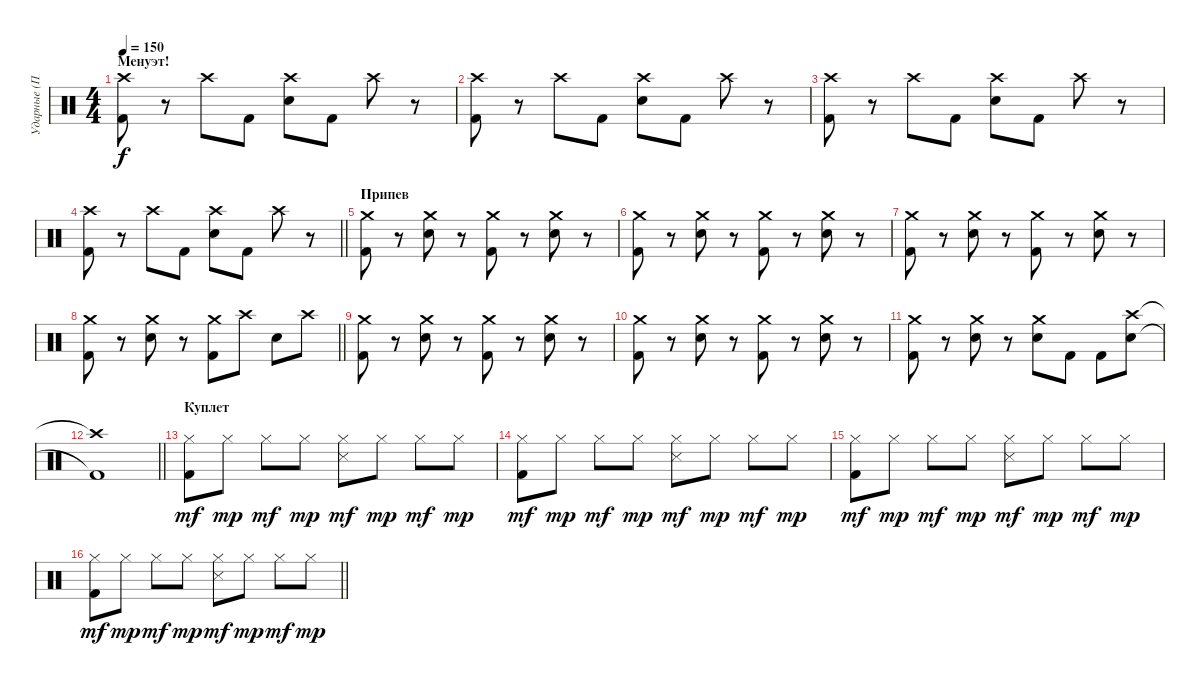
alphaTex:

\track ("Ударные (Поручик)" "Ударные (П") {instrument percussion}
\staff {score}
\articulation defaults
\ts (4 4)
\section ("" "Менуэт!")
\tempo 150
\clef neutral
\ks c
("Crash high (hit)" "Kick (hit) 2").8{dy f} r.8 "Crash high (hit)".8 "Kick (hit) 2".8 ("Crash high (hit)" "Snare (hit) 2").8 "Kick (hit) 2".8 "Crash high (hit)".8 r.8 |
("Crash high (hit)" "Kick (hit) 2").8 r.8 "Crash high (hit)".8 "Kick (hit) 2".8 ("Crash high (hit)" "Snare (hit) 2").8 "Kick (hit) 2".8 "Crash high (hit)".8 r.8 |
("Crash high (hit)" "Kick (hit) 2").8 r.8 "Crash high (hit)".8 "Kick (hit) 2".8 ("Crash high (hit)" "Snare (hit) 2").8 "Kick (hit) 2".8 "Crash high (hit)".8 r.8 |
\barLineRight lightlight
("Crash high (hit)" "Kick (hit) 2").8 r.8 "Crash high (hit)".8 "Kick (hit) 2".8 ("Crash high (hit)" "Snare (hit) 2").8 "Kick (hit) 2".8 "Crash high (hit)".8 r.8 |
\section ("" "Припев")
("Crash medium (hit)" "Kick (hit) 2").8 r.8 ("Crash medium (hit)" "Snare (hit) 2").8 r.8 ("Crash medium (hit)" "Kick (hit) 2").8 r.8 ("Crash medium (hit)" "Snare (hit) 2").8 r.8 |
("Crash medium (hit)" "Kick (hit) 2").8 r.8 ("Crash medium (hit)" "Snare (hit) 2").8 r.8 ("Crash medium (hit)" "Kick (hit) 2").8 r.8 ("Crash medium (hit)" "Snare (hit) 2").8 r.8 |
("Crash medium (hit)" "Kick (hit) 2").8 r.8 ("Crash medium (hit)" "Snare (hit) 2").8 r.8 ("Crash medium (hit)" "Kick (hit) 2").8 r.8 ("Crash medium (hit)" "Snare (hit) 2").8 r.8 |
\barLineRight lightlight
("Crash medium (hit)" "Kick (hit) 2").8 r.8 ("Crash medium (hit)" "Snare (hit) 2").8 r.8 ("Crash medium (hit)" "Kick (hit) 2").8 "Crash high (hit)".8 "Snare (hit) 2".8 "Crash high (hit)".8 |
("Crash medium (hit)" "Kick (hit) 2").8 r.8 ("Crash medium (hit)" "Snare (hit) 2").8 r.8 ("Crash medium (hit)" "Kick (hit) 2").8 r.8 ("Crash medium (hit)" "Snare (hit) 2").8 r.8 |
("Crash medium (hit)" "Kick (hit) 2").8 r.8 ("Crash medium (hit)" "Snare (hit) 2").8 r.8 ("Crash medium (hit)" "Kick (hit) 2").8 r.8 ("Crash medium (hit)" "Snare (hit) 2").8 r.8 |
("Crash medium (hit)" "Kick (hit) 2").8 r.8 ("Crash medium (hit)" "Snare (hit) 2").8 r.8 ("Crash medium (hit)" "Snare (hit) 2").8 "Kick (hit) 2".8 "Kick (hit) 2".8 ("Crash high (hit)" "Snare (hit) 2").8 |
\barLineRight lightlight
("Crash high (hit)"{t} "Kick (hit) 2"{t}).1 |
\section ("" "Куплет")
("Hi-Hat (closed)" "Kick (hit) 2").8{dy mf} "Hi-Hat (closed)".8{dy mp} "Hi-Hat (closed)".8{dy mf} "Hi-Hat (closed)".8{dy mp} ("Hi-Hat (closed)" "Snare (side stick) 3").8{dy mf} "Hi-Hat (closed)".8{dy mp} "Hi-Hat (closed)".8{dy mf} "Hi-Hat (closed)".8{dy mp} |
("Hi-Hat (closed)" "Kick (hit) 2").8{dy mf} "Hi-Hat (closed)".8{dy mp} "Hi-Hat (closed)".8{dy mf} "Hi-Hat (closed)".8{dy mp} ("Hi-Hat (closed)" "Snare (side stick) 3").8{dy mf} "Hi-Hat (closed)".8{dy mp} "Hi-Hat (closed)".8{dy mf} "Hi-Hat (closed)".8{dy mp} |
("Hi-Hat (closed)" "Kick (hit) 2").8{dy mf} "Hi-Hat (closed)".8{dy mp} "Hi-Hat (closed)".8{dy mf} "Hi-Hat (closed)".8{dy mp} ("Hi-Hat (closed)" "Snare (side stick) 3").8{dy mf} "Hi-Hat (closed)".8{dy mp} "Hi-Hat (closed)".8{dy mf} "Hi-Hat (closed)".8{dy mp} |
\barLineRight lightlight
("Hi-Hat (closed)" "Kick (hit) 2").8{dy mf} "Hi-Hat (closed)".8{dy mp} "Hi-Hat (closed)".8{dy mf} "Hi-Hat (closed)".8{dy mp} ("Hi-Hat (closed)" "Snare (side stick) 3").8{dy mf} "Hi-Hat (closed)".8{dy mp} "Hi-Hat (closed)".8{dy mf} "Hi-Hat (closed)".8{dy mp}
